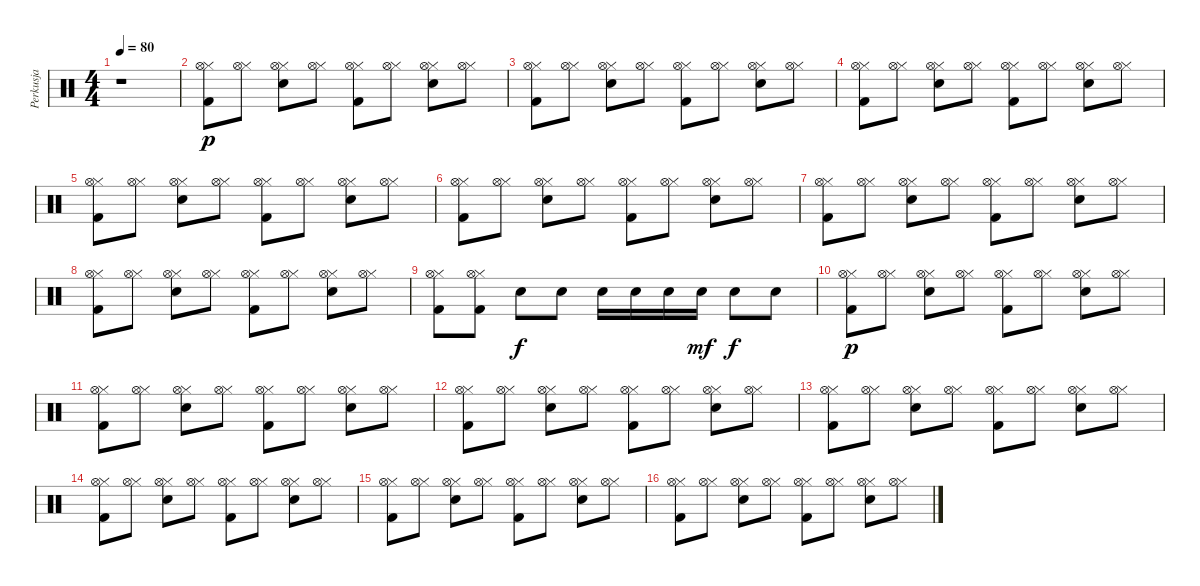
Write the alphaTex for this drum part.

\track ("Perkusja" "Perkusja") {instrument percussion}
\staff {score}
\articulation defaults
\ts (4 4)
\tempo 80
\clef neutral
\ks c
r.1{dy p} |
("Kick (hit) 2" "Hi-Hat (closed)" "Hi-Hat (open)").8 ("Hi-Hat (closed)" "Hi-Hat (open)").8 ("Electric Snare (hit)" "Hi-Hat (closed)" "Hi-Hat (open)").8 ("Hi-Hat (closed)" "Hi-Hat (open)").8 ("Kick (hit) 2" "Hi-Hat (closed)" "Hi-Hat (open)").8 ("Hi-Hat (closed)" "Hi-Hat (open)").8 ("Electric Snare (hit)" "Hi-Hat (closed)" "Hi-Hat (open)").8 ("Hi-Hat (closed)" "Hi-Hat (open)").8 |
("Kick (hit) 2" "Hi-Hat (closed)" "Hi-Hat (open)").8 ("Hi-Hat (closed)" "Hi-Hat (open)").8 ("Electric Snare (hit)" "Hi-Hat (closed)" "Hi-Hat (open)").8 ("Hi-Hat (closed)" "Hi-Hat (open)").8 ("Kick (hit) 2" "Hi-Hat (closed)" "Hi-Hat (open)").8 ("Hi-Hat (closed)" "Hi-Hat (open)").8 ("Electric Snare (hit)" "Hi-Hat (closed)" "Hi-Hat (open)").8 ("Hi-Hat (closed)" "Hi-Hat (open)").8 |
("Kick (hit) 2" "Hi-Hat (closed)" "Hi-Hat (open)").8 ("Hi-Hat (closed)" "Hi-Hat (open)").8 ("Electric Snare (hit)" "Hi-Hat (closed)" "Hi-Hat (open)").8 ("Hi-Hat (closed)" "Hi-Hat (open)").8 ("Kick (hit) 2" "Hi-Hat (closed)" "Hi-Hat (open)").8 ("Hi-Hat (closed)" "Hi-Hat (open)").8 ("Electric Snare (hit)" "Hi-Hat (closed)" "Hi-Hat (open)").8 ("Hi-Hat (closed)" "Hi-Hat (open)").8 |
("Kick (hit) 2" "Hi-Hat (closed)" "Hi-Hat (open)").8 ("Hi-Hat (closed)" "Hi-Hat (open)").8 ("Electric Snare (hit)" "Hi-Hat (closed)" "Hi-Hat (open)").8 ("Hi-Hat (closed)" "Hi-Hat (open)").8 ("Kick (hit) 2" "Hi-Hat (closed)" "Hi-Hat (open)").8 ("Hi-Hat (closed)" "Hi-Hat (open)").8 ("Electric Snare (hit)" "Hi-Hat (closed)" "Hi-Hat (open)").8 ("Hi-Hat (closed)" "Hi-Hat (open)").8 |
("Kick (hit) 2" "Hi-Hat (closed)" "Hi-Hat (open)").8 ("Hi-Hat (closed)" "Hi-Hat (open)").8 ("Electric Snare (hit)" "Hi-Hat (closed)" "Hi-Hat (open)").8 ("Hi-Hat (closed)" "Hi-Hat (open)").8 ("Kick (hit) 2" "Hi-Hat (closed)" "Hi-Hat (open)").8 ("Hi-Hat (closed)" "Hi-Hat (open)").8 ("Electric Snare (hit)" "Hi-Hat (closed)" "Hi-Hat (open)").8 ("Hi-Hat (closed)" "Hi-Hat (open)").8 |
("Kick (hit) 2" "Hi-Hat (closed)" "Hi-Hat (open)").8 ("Hi-Hat (closed)" "Hi-Hat (open)").8 ("Electric Snare (hit)" "Hi-Hat (closed)" "Hi-Hat (open)").8 ("Hi-Hat (closed)" "Hi-Hat (open)").8 ("Kick (hit) 2" "Hi-Hat (closed)" "Hi-Hat (open)").8 ("Hi-Hat (closed)" "Hi-Hat (open)").8 ("Electric Snare (hit)" "Hi-Hat (closed)" "Hi-Hat (open)").8 ("Hi-Hat (closed)" "Hi-Hat (open)").8 |
("Kick (hit) 2" "Hi-Hat (closed)" "Hi-Hat (open)").8 ("Hi-Hat (closed)" "Hi-Hat (open)").8 ("Electric Snare (hit)" "Hi-Hat (closed)" "Hi-Hat (open)").8 ("Hi-Hat (closed)" "Hi-Hat (open)").8 ("Kick (hit) 2" "Hi-Hat (closed)" "Hi-Hat (open)").8 ("Hi-Hat (closed)" "Hi-Hat (open)").8 ("Electric Snare (hit)" "Hi-Hat (closed)" "Hi-Hat (open)").8 ("Hi-Hat (closed)" "Hi-Hat (open)").8 |
("Kick (hit) 2" "Hi-Hat (closed)" "Hi-Hat (open)").8 ("Kick (hit) 2" "Hi-Hat (closed)" "Hi-Hat (open)").8 "Electric Snare (hit)".8{dy f} "Electric Snare (hit)".8 "Electric Snare (hit)".16 "Electric Snare (hit)".16 "Electric Snare (hit)".16 "Electric Snare (hit)".16{dy mf} "Electric Snare (hit)".8{dy f} "Electric Snare (hit)".8 |
("Kick (hit) 2" "Hi-Hat (closed)" "Hi-Hat (open)").8{dy p} ("Hi-Hat (closed)" "Hi-Hat (open)").8 ("Electric Snare (hit)" "Hi-Hat (closed)" "Hi-Hat (open)").8 ("Hi-Hat (closed)" "Hi-Hat (open)").8 ("Kick (hit) 2" "Hi-Hat (closed)" "Hi-Hat (open)").8 ("Hi-Hat (closed)" "Hi-Hat (open)").8 ("Electric Snare (hit)" "Hi-Hat (closed)" "Hi-Hat (open)").8 ("Hi-Hat (closed)" "Hi-Hat (open)").8 |
("Kick (hit) 2" "Hi-Hat (closed)" "Hi-Hat (open)").8 ("Hi-Hat (closed)" "Hi-Hat (open)").8 ("Electric Snare (hit)" "Hi-Hat (closed)" "Hi-Hat (open)").8 ("Hi-Hat (closed)" "Hi-Hat (open)").8 ("Kick (hit) 2" "Hi-Hat (closed)" "Hi-Hat (open)").8 ("Hi-Hat (closed)" "Hi-Hat (open)").8 ("Electric Snare (hit)" "Hi-Hat (closed)" "Hi-Hat (open)").8 ("Hi-Hat (closed)" "Hi-Hat (open)").8 |
("Kick (hit) 2" "Hi-Hat (closed)" "Hi-Hat (open)").8 ("Hi-Hat (closed)" "Hi-Hat (open)").8 ("Electric Snare (hit)" "Hi-Hat (closed)" "Hi-Hat (open)").8 ("Hi-Hat (closed)" "Hi-Hat (open)").8 ("Kick (hit) 2" "Hi-Hat (closed)" "Hi-Hat (open)").8 ("Hi-Hat (closed)" "Hi-Hat (open)").8 ("Electric Snare (hit)" "Hi-Hat (closed)" "Hi-Hat (open)").8 ("Hi-Hat (closed)" "Hi-Hat (open)").8 |
("Kick (hit) 2" "Hi-Hat (closed)" "Hi-Hat (open)").8 ("Hi-Hat (closed)" "Hi-Hat (open)").8 ("Electric Snare (hit)" "Hi-Hat (closed)" "Hi-Hat (open)").8 ("Hi-Hat (closed)" "Hi-Hat (open)").8 ("Kick (hit) 2" "Hi-Hat (closed)" "Hi-Hat (open)").8 ("Hi-Hat (closed)" "Hi-Hat (open)").8 ("Electric Snare (hit)" "Hi-Hat (closed)" "Hi-Hat (open)").8 ("Hi-Hat (closed)" "Hi-Hat (open)").8 |
("Kick (hit) 2" "Hi-Hat (closed)" "Hi-Hat (open)").8 ("Hi-Hat (closed)" "Hi-Hat (open)").8 ("Electric Snare (hit)" "Hi-Hat (closed)" "Hi-Hat (open)").8 ("Hi-Hat (closed)" "Hi-Hat (open)").8 ("Kick (hit) 2" "Hi-Hat (closed)" "Hi-Hat (open)").8 ("Hi-Hat (closed)" "Hi-Hat (open)").8 ("Electric Snare (hit)" "Hi-Hat (closed)" "Hi-Hat (open)").8 ("Hi-Hat (closed)" "Hi-Hat (open)").8 |
("Kick (hit) 2" "Hi-Hat (closed)" "Hi-Hat (open)").8 ("Hi-Hat (closed)" "Hi-Hat (open)").8 ("Electric Snare (hit)" "Hi-Hat (closed)" "Hi-Hat (open)").8 ("Hi-Hat (closed)" "Hi-Hat (open)").8 ("Kick (hit) 2" "Hi-Hat (closed)" "Hi-Hat (open)").8 ("Hi-Hat (closed)" "Hi-Hat (open)").8 ("Electric Snare (hit)" "Hi-Hat (closed)" "Hi-Hat (open)").8 ("Hi-Hat (closed)" "Hi-Hat (open)").8 |
("Kick (hit) 2" "Hi-Hat (closed)" "Hi-Hat (open)").8 ("Hi-Hat (closed)" "Hi-Hat (open)").8 ("Electric Snare (hit)" "Hi-Hat (closed)" "Hi-Hat (open)").8 ("Hi-Hat (closed)" "Hi-Hat (open)").8 ("Kick (hit) 2" "Hi-Hat (closed)" "Hi-Hat (open)").8 ("Hi-Hat (closed)" "Hi-Hat (open)").8 ("Electric Snare (hit)" "Hi-Hat (closed)" "Hi-Hat (open)").8 ("Hi-Hat (closed)" "Hi-Hat (open)").8
